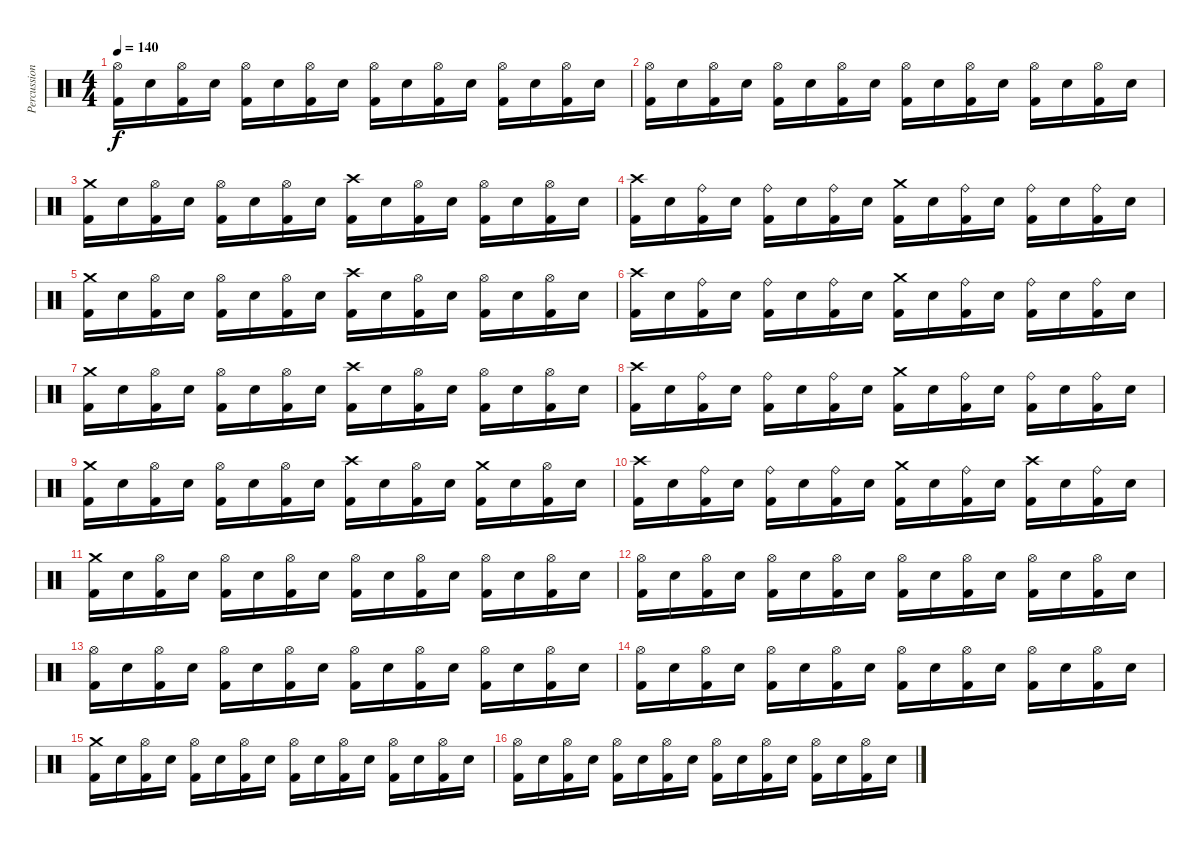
\track ("Percussion" "Percussion") {instrument percussion}
\staff {score}
\articulation defaults
\ts (4 4)
\tempo 140
\clef neutral
\ks c
("Hi-Hat (open)" "Kick (hit) 2").16{dy f} "Electric Snare (hit)".16 ("Hi-Hat (open)" "Kick (hit) 2").16 "Electric Snare (hit)".16 ("Hi-Hat (open)" "Kick (hit) 2").16 "Electric Snare (hit)".16 ("Hi-Hat (open)" "Kick (hit) 2").16 "Electric Snare (hit)".16 ("Hi-Hat (open)" "Kick (hit) 2").16 "Electric Snare (hit)".16 ("Hi-Hat (open)" "Kick (hit) 2").16 "Electric Snare (hit)".16 ("Hi-Hat (open)" "Kick (hit) 2").16 "Electric Snare (hit)".16 ("Hi-Hat (open)" "Kick (hit) 2").16 "Electric Snare (hit)".16 |
("Hi-Hat (open)" "Kick (hit) 2").16 "Electric Snare (hit)".16 ("Hi-Hat (open)" "Kick (hit) 2").16 "Electric Snare (hit)".16 ("Hi-Hat (open)" "Kick (hit) 2").16 "Electric Snare (hit)".16 ("Hi-Hat (open)" "Kick (hit) 2").16 "Electric Snare (hit)".16 ("Hi-Hat (open)" "Kick (hit) 2").16 "Electric Snare (hit)".16 ("Hi-Hat (open)" "Kick (hit) 2").16 "Electric Snare (hit)".16 ("Hi-Hat (open)" "Kick (hit) 2").16 "Electric Snare (hit)".16 ("Hi-Hat (open)" "Kick (hit) 2").16 "Electric Snare (hit)".16 |
("Crash medium (hit)" "Kick (hit) 2").16 "Electric Snare (hit)".16 ("Hi-Hat (open)" "Kick (hit) 2").16 "Electric Snare (hit)".16 ("Hi-Hat (open)" "Kick (hit) 2").16 "Electric Snare (hit)".16 ("Hi-Hat (open)" "Kick (hit) 2").16 "Electric Snare (hit)".16 ("Crash high (hit)" "Kick (hit) 2").16 "Electric Snare (hit)".16 ("Hi-Hat (open)" "Kick (hit) 2").16 "Electric Snare (hit)".16 ("Hi-Hat (open)" "Kick (hit) 2").16 "Electric Snare (hit)".16 ("Hi-Hat (open)" "Kick (hit) 2").16 "Electric Snare (hit)".16 |
("Crash high (hit)" "Kick (hit) 2").16 "Electric Snare (hit)".16 ("Ride (bell)" "Kick (hit) 2").16 "Electric Snare (hit)".16 ("Ride (bell)" "Kick (hit) 2").16 "Electric Snare (hit)".16 ("Ride (bell)" "Kick (hit) 2").16 "Electric Snare (hit)".16 ("Crash medium (hit)" "Kick (hit) 2").16 "Electric Snare (hit)".16 ("Ride (bell)" "Kick (hit) 2").16 "Electric Snare (hit)".16 ("Ride (bell)" "Kick (hit) 2").16 "Electric Snare (hit)".16 ("Ride (bell)" "Kick (hit) 2").16 "Electric Snare (hit)".16 |
("Crash medium (hit)" "Kick (hit) 2").16 "Electric Snare (hit)".16 ("Hi-Hat (open)" "Kick (hit) 2").16 "Electric Snare (hit)".16 ("Hi-Hat (open)" "Kick (hit) 2").16 "Electric Snare (hit)".16 ("Hi-Hat (open)" "Kick (hit) 2").16 "Electric Snare (hit)".16 ("Crash high (hit)" "Kick (hit) 2").16 "Electric Snare (hit)".16 ("Hi-Hat (open)" "Kick (hit) 2").16 "Electric Snare (hit)".16 ("Hi-Hat (open)" "Kick (hit) 2").16 "Electric Snare (hit)".16 ("Hi-Hat (open)" "Kick (hit) 2").16 "Electric Snare (hit)".16 |
("Crash high (hit)" "Kick (hit) 2").16 "Electric Snare (hit)".16 ("Ride (bell)" "Kick (hit) 2").16 "Electric Snare (hit)".16 ("Ride (bell)" "Kick (hit) 2").16 "Electric Snare (hit)".16 ("Ride (bell)" "Kick (hit) 2").16 "Electric Snare (hit)".16 ("Crash medium (hit)" "Kick (hit) 2").16 "Electric Snare (hit)".16 ("Ride (bell)" "Kick (hit) 2").16 "Electric Snare (hit)".16 ("Ride (bell)" "Kick (hit) 2").16 "Electric Snare (hit)".16 ("Ride (bell)" "Kick (hit) 2").16 "Electric Snare (hit)".16 |
("Crash medium (hit)" "Kick (hit) 2").16 "Electric Snare (hit)".16 ("Hi-Hat (open)" "Kick (hit) 2").16 "Electric Snare (hit)".16 ("Hi-Hat (open)" "Kick (hit) 2").16 "Electric Snare (hit)".16 ("Hi-Hat (open)" "Kick (hit) 2").16 "Electric Snare (hit)".16 ("Crash high (hit)" "Kick (hit) 2").16 "Electric Snare (hit)".16 ("Hi-Hat (open)" "Kick (hit) 2").16 "Electric Snare (hit)".16 ("Hi-Hat (open)" "Kick (hit) 2").16 "Electric Snare (hit)".16 ("Hi-Hat (open)" "Kick (hit) 2").16 "Electric Snare (hit)".16 |
("Crash high (hit)" "Kick (hit) 2").16 "Electric Snare (hit)".16 ("Ride (bell)" "Kick (hit) 2").16 "Electric Snare (hit)".16 ("Ride (bell)" "Kick (hit) 2").16 "Electric Snare (hit)".16 ("Ride (bell)" "Kick (hit) 2").16 "Electric Snare (hit)".16 ("Crash medium (hit)" "Kick (hit) 2").16 "Electric Snare (hit)".16 ("Ride (bell)" "Kick (hit) 2").16 "Electric Snare (hit)".16 ("Ride (bell)" "Kick (hit) 2").16 "Electric Snare (hit)".16 ("Ride (bell)" "Kick (hit) 2").16 "Electric Snare (hit)".16 |
("Crash medium (hit)" "Kick (hit) 2").16 "Electric Snare (hit)".16 ("Hi-Hat (open)" "Kick (hit) 2").16 "Electric Snare (hit)".16 ("Hi-Hat (open)" "Kick (hit) 2").16 "Electric Snare (hit)".16 ("Hi-Hat (open)" "Kick (hit) 2").16 "Electric Snare (hit)".16 ("Crash high (hit)" "Kick (hit) 2").16 "Electric Snare (hit)".16 ("Hi-Hat (open)" "Kick (hit) 2").16 "Electric Snare (hit)".16 ("Crash medium (hit)" "Kick (hit) 2").16 "Electric Snare (hit)".16 ("Hi-Hat (open)" "Kick (hit) 2").16 "Electric Snare (hit)".16 |
("Crash high (hit)" "Kick (hit) 2").16 "Electric Snare (hit)".16 ("Ride (bell)" "Kick (hit) 2").16 "Electric Snare (hit)".16 ("Ride (bell)" "Kick (hit) 2").16 "Electric Snare (hit)".16 ("Ride (bell)" "Kick (hit) 2").16 "Electric Snare (hit)".16 ("Crash medium (hit)" "Kick (hit) 2").16 "Electric Snare (hit)".16 ("Ride (bell)" "Kick (hit) 2").16 "Electric Snare (hit)".16 ("Crash high (hit)" "Kick (hit) 2").16 "Electric Snare (hit)".16 ("Ride (bell)" "Kick (hit) 2").16 "Electric Snare (hit)".16 |
("Crash medium (hit)" "Kick (hit) 2").16 "Electric Snare (hit)".16 ("Hi-Hat (open)" "Kick (hit) 2").16 "Electric Snare (hit)".16 ("Hi-Hat (open)" "Kick (hit) 2").16 "Electric Snare (hit)".16 ("Hi-Hat (open)" "Kick (hit) 2").16 "Electric Snare (hit)".16 ("Hi-Hat (open)" "Kick (hit) 2").16 "Electric Snare (hit)".16 ("Hi-Hat (open)" "Kick (hit) 2").16 "Electric Snare (hit)".16 ("Hi-Hat (open)" "Kick (hit) 2").16 "Electric Snare (hit)".16 ("Hi-Hat (open)" "Kick (hit) 2").16 "Electric Snare (hit)".16 |
("Hi-Hat (open)" "Kick (hit) 2").16 "Electric Snare (hit)".16 ("Hi-Hat (open)" "Kick (hit) 2").16 "Electric Snare (hit)".16 ("Hi-Hat (open)" "Kick (hit) 2").16 "Electric Snare (hit)".16 ("Hi-Hat (open)" "Kick (hit) 2").16 "Electric Snare (hit)".16 ("Hi-Hat (open)" "Kick (hit) 2").16 "Electric Snare (hit)".16 ("Hi-Hat (open)" "Kick (hit) 2").16 "Electric Snare (hit)".16 ("Hi-Hat (open)" "Kick (hit) 2").16 "Electric Snare (hit)".16 ("Hi-Hat (open)" "Kick (hit) 2").16 "Electric Snare (hit)".16 |
("Hi-Hat (open)" "Kick (hit) 2").16 "Electric Snare (hit)".16 ("Hi-Hat (open)" "Kick (hit) 2").16 "Electric Snare (hit)".16 ("Hi-Hat (open)" "Kick (hit) 2").16 "Electric Snare (hit)".16 ("Hi-Hat (open)" "Kick (hit) 2").16 "Electric Snare (hit)".16 ("Hi-Hat (open)" "Kick (hit) 2").16 "Electric Snare (hit)".16 ("Hi-Hat (open)" "Kick (hit) 2").16 "Electric Snare (hit)".16 ("Hi-Hat (open)" "Kick (hit) 2").16 "Electric Snare (hit)".16 ("Hi-Hat (open)" "Kick (hit) 2").16 "Electric Snare (hit)".16 |
("Hi-Hat (open)" "Kick (hit) 2").16 "Electric Snare (hit)".16 ("Hi-Hat (open)" "Kick (hit) 2").16 "Electric Snare (hit)".16 ("Hi-Hat (open)" "Kick (hit) 2").16 "Electric Snare (hit)".16 ("Hi-Hat (open)" "Kick (hit) 2").16 "Electric Snare (hit)".16 ("Hi-Hat (open)" "Kick (hit) 2").16 "Electric Snare (hit)".16 ("Hi-Hat (open)" "Kick (hit) 2").16 "Electric Snare (hit)".16 ("Hi-Hat (open)" "Kick (hit) 2").16 "Electric Snare (hit)".16 ("Hi-Hat (open)" "Kick (hit) 2").16 "Electric Snare (hit)".16 |
("Crash medium (hit)" "Kick (hit) 2").16 "Electric Snare (hit)".16 ("Hi-Hat (open)" "Kick (hit) 2").16 "Electric Snare (hit)".16 ("Hi-Hat (open)" "Kick (hit) 2").16 "Electric Snare (hit)".16 ("Hi-Hat (open)" "Kick (hit) 2").16 "Electric Snare (hit)".16 ("Hi-Hat (open)" "Kick (hit) 2").16 "Electric Snare (hit)".16 ("Hi-Hat (open)" "Kick (hit) 2").16 "Electric Snare (hit)".16 ("Hi-Hat (open)" "Kick (hit) 2").16 "Electric Snare (hit)".16 ("Hi-Hat (open)" "Kick (hit) 2").16 "Electric Snare (hit)".16 |
("Hi-Hat (open)" "Kick (hit) 2").16 "Electric Snare (hit)".16 ("Hi-Hat (open)" "Kick (hit) 2").16 "Electric Snare (hit)".16 ("Hi-Hat (open)" "Kick (hit) 2").16 "Electric Snare (hit)".16 ("Hi-Hat (open)" "Kick (hit) 2").16 "Electric Snare (hit)".16 ("Hi-Hat (open)" "Kick (hit) 2").16 "Electric Snare (hit)".16 ("Hi-Hat (open)" "Kick (hit) 2").16 "Electric Snare (hit)".16 ("Hi-Hat (open)" "Kick (hit) 2").16 "Electric Snare (hit)".16 ("Hi-Hat (open)" "Kick (hit) 2").16 "Electric Snare (hit)".16
